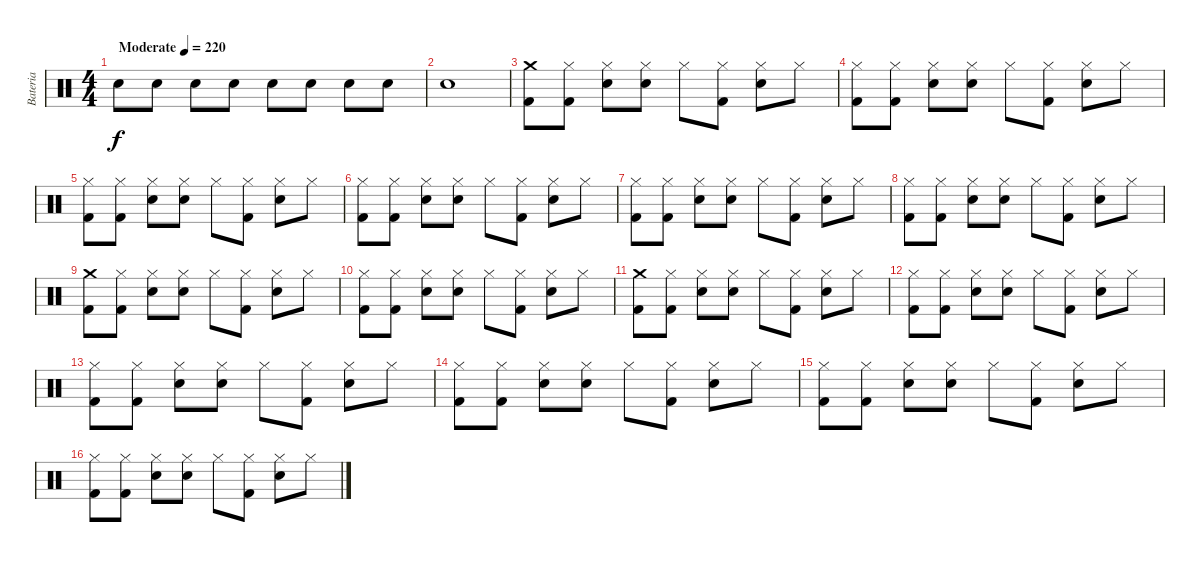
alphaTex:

\track ("Bateria" "Bateria") {instrument percussion}
\staff {score}
\articulation defaults
\ts (4 4)
\tempo (220 "Moderate")
\clef neutral
\ks c "Electric Snare (hit)".8{dy f} "Electric Snare (hit)".8 "Electric Snare (hit)".8 "Electric Snare (hit)".8 "Electric Snare (hit)".8 "Electric Snare (hit)".8 "Electric Snare (hit)".8 "Electric Snare (hit)".8
|
"Electric Snare (hit)".1 |
("Crash medium (hit)" "Kick (hit) 2").8 ("Hi-Hat (closed)" "Kick (hit) 2").8 ("Hi-Hat (closed)" "Electric Snare (hit)").8 ("Hi-Hat (closed)" "Electric Snare (hit)").8 "Hi-Hat (closed)".8 ("Hi-Hat (closed)" "Kick (hit) 2").8 ("Hi-Hat (closed)" "Electric Snare (hit)").8 "Hi-Hat (closed)".8 |
("Hi-Hat (closed)" "Kick (hit) 2").8 ("Hi-Hat (closed)" "Kick (hit) 2").8 ("Hi-Hat (closed)" "Electric Snare (hit)").8 ("Hi-Hat (closed)" "Electric Snare (hit)").8 "Hi-Hat (closed)".8 ("Hi-Hat (closed)" "Kick (hit) 2").8 ("Hi-Hat (closed)" "Electric Snare (hit)").8 "Hi-Hat (closed)".8 |
("Hi-Hat (closed)" "Kick (hit) 2").8 ("Hi-Hat (closed)" "Kick (hit) 2").8 ("Hi-Hat (closed)" "Electric Snare (hit)").8 ("Hi-Hat (closed)" "Electric Snare (hit)").8 "Hi-Hat (closed)".8 ("Hi-Hat (closed)" "Kick (hit) 2").8 ("Hi-Hat (closed)" "Electric Snare (hit)").8 "Hi-Hat (closed)".8 |
("Hi-Hat (closed)" "Kick (hit) 2").8 ("Hi-Hat (closed)" "Kick (hit) 2").8 ("Hi-Hat (closed)" "Electric Snare (hit)").8 ("Hi-Hat (closed)" "Electric Snare (hit)").8 "Hi-Hat (closed)".8 ("Hi-Hat (closed)" "Kick (hit) 2").8 ("Hi-Hat (closed)" "Electric Snare (hit)").8 "Hi-Hat (closed)".8 |
("Hi-Hat (closed)" "Kick (hit) 2").8 ("Hi-Hat (closed)" "Kick (hit) 2").8 ("Hi-Hat (closed)" "Electric Snare (hit)").8 ("Hi-Hat (closed)" "Electric Snare (hit)").8 "Hi-Hat (closed)".8 ("Hi-Hat (closed)" "Kick (hit) 2").8 ("Hi-Hat (closed)" "Electric Snare (hit)").8 "Hi-Hat (closed)".8 |
("Hi-Hat (closed)" "Kick (hit) 2").8 ("Hi-Hat (closed)" "Kick (hit) 2").8 ("Hi-Hat (closed)" "Electric Snare (hit)").8 ("Hi-Hat (closed)" "Electric Snare (hit)").8 "Hi-Hat (closed)".8 ("Hi-Hat (closed)" "Kick (hit) 2").8 ("Hi-Hat (closed)" "Electric Snare (hit)").8 "Hi-Hat (closed)".8 |
("Crash medium (hit)" "Kick (hit) 2").8 ("Hi-Hat (closed)" "Kick (hit) 2").8 ("Hi-Hat (closed)" "Electric Snare (hit)").8 ("Hi-Hat (closed)" "Electric Snare (hit)").8 "Hi-Hat (closed)".8 ("Hi-Hat (closed)" "Kick (hit) 2").8 ("Hi-Hat (closed)" "Electric Snare (hit)").8 "Hi-Hat (closed)".8 |
("Hi-Hat (closed)" "Kick (hit) 2").8 ("Hi-Hat (closed)" "Kick (hit) 2").8 ("Hi-Hat (closed)" "Electric Snare (hit)").8 ("Hi-Hat (closed)" "Electric Snare (hit)").8 "Hi-Hat (closed)".8 ("Hi-Hat (closed)" "Kick (hit) 2").8 ("Hi-Hat (closed)" "Electric Snare (hit)").8 "Hi-Hat (closed)".8 |
("Crash medium (hit)" "Kick (hit) 2").8 ("Hi-Hat (closed)" "Kick (hit) 2").8 ("Hi-Hat (closed)" "Electric Snare (hit)").8 ("Hi-Hat (closed)" "Electric Snare (hit)").8 "Hi-Hat (closed)".8 ("Hi-Hat (closed)" "Kick (hit) 2").8 ("Hi-Hat (closed)" "Electric Snare (hit)").8 "Hi-Hat (closed)".8 |
("Hi-Hat (closed)" "Kick (hit) 2").8 ("Hi-Hat (closed)" "Kick (hit) 2").8 ("Hi-Hat (closed)" "Electric Snare (hit)").8 ("Hi-Hat (closed)" "Electric Snare (hit)").8 "Hi-Hat (closed)".8 ("Hi-Hat (closed)" "Kick (hit) 2").8 ("Hi-Hat (closed)" "Electric Snare (hit)").8 "Hi-Hat (closed)".8 |
("Hi-Hat (closed)" "Kick (hit) 2").8 ("Hi-Hat (closed)" "Kick (hit) 2").8 ("Hi-Hat (closed)" "Electric Snare (hit)").8 ("Hi-Hat (closed)" "Electric Snare (hit)").8 "Hi-Hat (closed)".8 ("Hi-Hat (closed)" "Kick (hit) 2").8 ("Hi-Hat (closed)" "Electric Snare (hit)").8 "Hi-Hat (closed)".8 |
("Hi-Hat (closed)" "Kick (hit) 2").8 ("Hi-Hat (closed)" "Kick (hit) 2").8 ("Hi-Hat (closed)" "Electric Snare (hit)").8 ("Hi-Hat (closed)" "Electric Snare (hit)").8 "Hi-Hat (closed)".8 ("Hi-Hat (closed)" "Kick (hit) 2").8 ("Hi-Hat (closed)" "Electric Snare (hit)").8 "Hi-Hat (closed)".8 |
("Hi-Hat (closed)" "Kick (hit) 2").8 ("Hi-Hat (closed)" "Kick (hit) 2").8 ("Hi-Hat (closed)" "Electric Snare (hit)").8 ("Hi-Hat (closed)" "Electric Snare (hit)").8 "Hi-Hat (closed)".8 ("Hi-Hat (closed)" "Kick (hit) 2").8 ("Hi-Hat (closed)" "Electric Snare (hit)").8 "Hi-Hat (closed)".8 |
("Hi-Hat (closed)" "Kick (hit) 2").8 ("Hi-Hat (closed)" "Kick (hit) 2").8 ("Hi-Hat (closed)" "Electric Snare (hit)").8 ("Hi-Hat (closed)" "Electric Snare (hit)").8 "Hi-Hat (closed)".8 ("Hi-Hat (closed)" "Kick (hit) 2").8 ("Hi-Hat (closed)" "Electric Snare (hit)").8 "Hi-Hat (closed)".8
